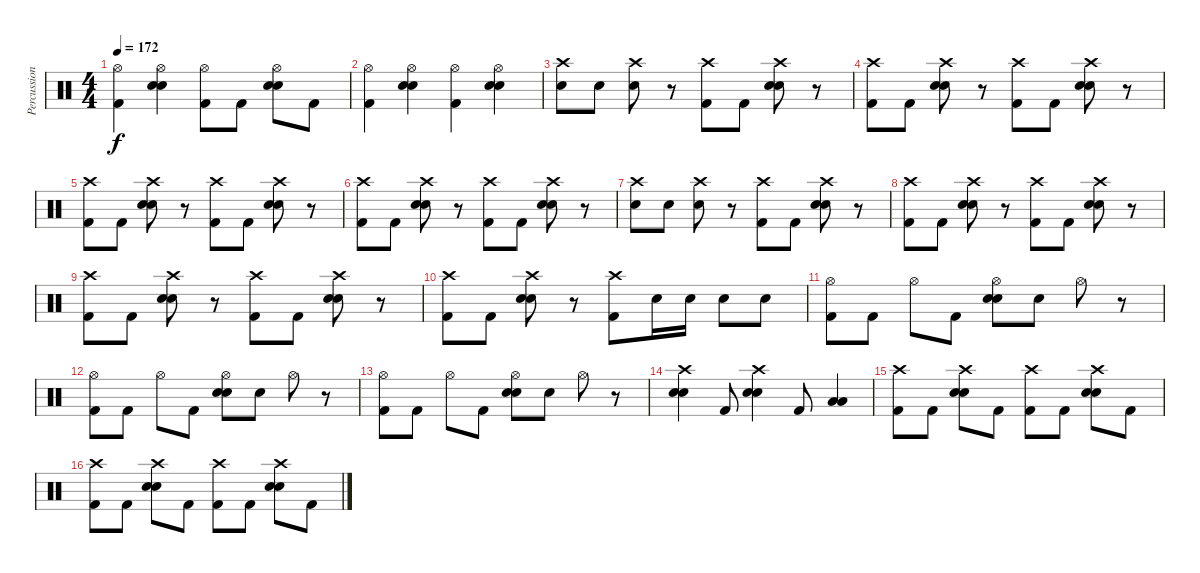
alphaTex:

\track ("Percussion" "Percussion") {instrument percussion}
\staff {score}
\articulation defaults
\ts (4 4)
\tempo 172
\clef neutral
\ks c
("Hi-Hat (open)" "Kick (hit) 2").4{dy f} ("Hi-Hat (open)" "Snare (hit) 2" "Electric Snare (hit)").4 ("Hi-Hat (open)" "Kick (hit) 2").8 "Kick (hit) 2".8 ("Hi-Hat (open)" "Snare (hit) 2" "Electric Snare (hit)").8 "Kick (hit) 2".8 |
("Hi-Hat (open)" "Kick (hit) 2").4 ("Hi-Hat (open)" "Snare (hit) 2" "Electric Snare (hit)").4 ("Hi-Hat (open)" "Kick (hit) 2").4 ("Hi-Hat (open)" "Snare (hit) 2" "Electric Snare (hit)").4 |
("Crash high (hit)" "Snare (hit) 2").8 "Snare (hit) 2".8 ("Crash high (hit)" "Snare (hit) 2").8 r.8 ("Crash high (hit)" "Kick (hit) 2").8 "Kick (hit) 2".8 ("Crash high (hit)" "Snare (hit) 2" "Electric Snare (hit)").8 r.8 |
("Crash high (hit)" "Kick (hit) 2").8 "Kick (hit) 2".8 ("Crash high (hit)" "Snare (hit) 2" "Electric Snare (hit)").8 r.8 ("Crash high (hit)" "Kick (hit) 2").8 "Kick (hit) 2".8 ("Crash high (hit)" "Snare (hit) 2" "Electric Snare (hit)").8 r.8 |
("Crash high (hit)" "Kick (hit) 2").8 "Kick (hit) 2".8 ("Crash high (hit)" "Snare (hit) 2" "Electric Snare (hit)").8 r.8 ("Crash high (hit)" "Kick (hit) 2").8 "Kick (hit) 2".8 ("Crash high (hit)" "Snare (hit) 2" "Electric Snare (hit)").8 r.8 |
("Crash high (hit)" "Kick (hit) 2").8 "Kick (hit) 2".8 ("Crash high (hit)" "Snare (hit) 2" "Electric Snare (hit)").8 r.8 ("Crash high (hit)" "Kick (hit) 2").8 "Kick (hit) 2".8 ("Crash high (hit)" "Snare (hit) 2" "Electric Snare (hit)").8 r.8 |
("Crash high (hit)" "Snare (hit) 2").8 "Snare (hit) 2".8 ("Crash high (hit)" "Snare (hit) 2").8 r.8 ("Crash high (hit)" "Kick (hit) 2").8 "Kick (hit) 2".8 ("Crash high (hit)" "Snare (hit) 2" "Electric Snare (hit)").8 r.8 |
("Crash high (hit)" "Kick (hit) 2").8 "Kick (hit) 2".8 ("Crash high (hit)" "Snare (hit) 2" "Electric Snare (hit)").8 r.8 ("Crash high (hit)" "Kick (hit) 2").8 "Kick (hit) 2".8 ("Crash high (hit)" "Snare (hit) 2" "Electric Snare (hit)").8 r.8 |
("Crash high (hit)" "Kick (hit) 2").8 "Kick (hit) 2".8 ("Crash high (hit)" "Snare (hit) 2" "Electric Snare (hit)").8 r.8 ("Crash high (hit)" "Kick (hit) 2").8 "Kick (hit) 2".8 ("Crash high (hit)" "Snare (hit) 2" "Electric Snare (hit)").8 r.8 |
("Crash high (hit)" "Kick (hit) 2").8 "Kick (hit) 2".8 ("Crash high (hit)" "Snare (hit) 2" "Electric Snare (hit)").8 r.8 ("Crash high (hit)" "Kick (hit) 2").8 "Snare (hit) 2".16 "Snare (hit) 2".16 "Snare (hit) 2".8 "Snare (hit) 2".8 |
("Hi-Hat (open)" "Kick (hit) 2").8 "Kick (hit) 2".8 "Hi-Hat (open)".8 "Kick (hit) 2".8 ("Hi-Hat (open)" "Snare (hit) 2" "Electric Snare (hit)").8 "Electric Snare (hit)".8 "Hi-Hat (open)".8 r.8 |
("Hi-Hat (open)" "Kick (hit) 2").8 "Kick (hit) 2".8 "Hi-Hat (open)".8 "Kick (hit) 2".8 ("Hi-Hat (open)" "Snare (hit) 2" "Electric Snare (hit)").8 "Electric Snare (hit)".8 "Hi-Hat (open)".8 r.8 |
("Hi-Hat (open)" "Kick (hit) 2").8 "Kick (hit) 2".8 "Hi-Hat (open)".8 "Kick (hit) 2".8 ("Hi-Hat (open)" "Snare (hit) 2" "Electric Snare (hit)").8 "Electric Snare (hit)".8 "Hi-Hat (open)".8 r.8 |
("Crash high (hit)" "Snare (hit) 2" "Electric Snare (hit)").4 "Kick (hit) 2".8 ("Crash high (hit)" "Snare (hit) 2" "Electric Snare (hit)").4 "Kick (hit) 2".8 ("Low Tom (hit)" "Low Floor Tom (hit)").4 |
("Crash high (hit)" "Kick (hit) 2").8 "Kick (hit) 2".8 ("Crash high (hit)" "Snare (hit) 2" "Electric Snare (hit)").8 "Kick (hit) 2".8 ("Crash high (hit)" "Kick (hit) 2").8 "Kick (hit) 2".8 ("Crash high (hit)" "Snare (hit) 2" "Electric Snare (hit)").8 "Kick (hit) 2".8 |
("Crash high (hit)" "Kick (hit) 2").8 "Kick (hit) 2".8 ("Crash high (hit)" "Snare (hit) 2" "Electric Snare (hit)").8 "Kick (hit) 2".8 ("Crash high (hit)" "Kick (hit) 2").8 "Kick (hit) 2".8 ("Crash high (hit)" "Snare (hit) 2" "Electric Snare (hit)").8 "Kick (hit) 2".8
